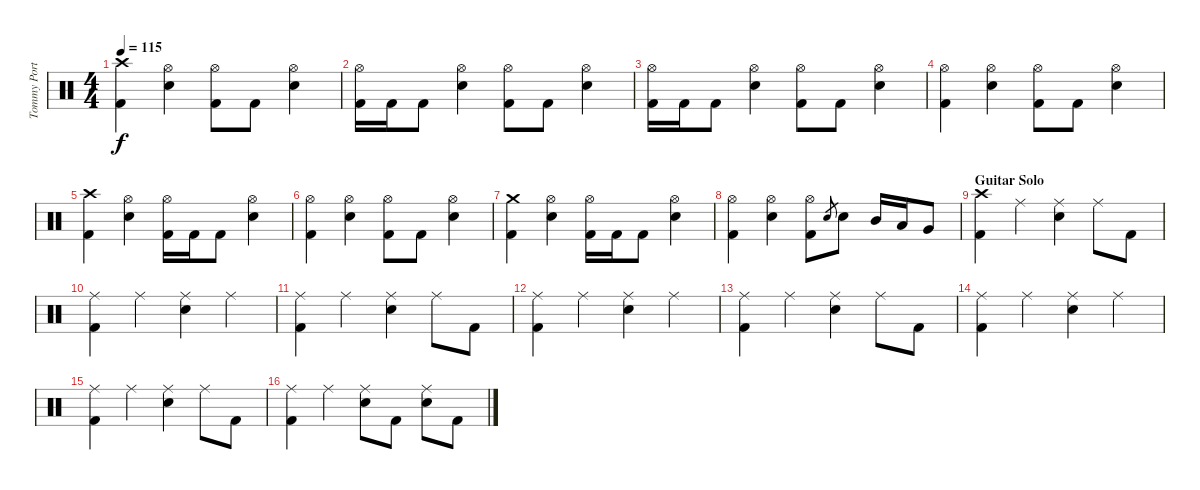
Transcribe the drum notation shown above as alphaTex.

\track ("Tommy Portino - Drums" "Tommy Port") {instrument percussion}
\staff {score}
\articulation defaults
\ts (4 4)
\tempo 115
\clef neutral
\ks c
("Crash high (hit)" "Kick (hit) 2").4{dy f} ("Hi-Hat (open)" "Electric Snare (hit)").4 ("Hi-Hat (open)" "Kick (hit) 2").8 "Kick (hit) 2".8 ("Hi-Hat (open)" "Electric Snare (hit)").4 |
("Hi-Hat (open)" "Kick (hit) 2").16 "Kick (hit) 2".16 "Kick (hit) 2".8 ("Hi-Hat (open)" "Electric Snare (hit)").4 ("Hi-Hat (open)" "Kick (hit) 2").8 "Kick (hit) 2".8 ("Hi-Hat (open)" "Electric Snare (hit)").4 |
("Hi-Hat (open)" "Kick (hit) 2").16 "Kick (hit) 2".16 "Kick (hit) 2".8 ("Hi-Hat (open)" "Electric Snare (hit)").4 ("Hi-Hat (open)" "Kick (hit) 2").8 "Kick (hit) 2".8 ("Hi-Hat (open)" "Electric Snare (hit)").4 |
("Hi-Hat (open)" "Kick (hit) 2").4 ("Hi-Hat (open)" "Electric Snare (hit)").4 ("Hi-Hat (open)" "Kick (hit) 2").8 "Kick (hit) 2".8 ("Hi-Hat (open)" "Electric Snare (hit)").4 |
("Crash high (hit)" "Kick (hit) 2").4 ("Hi-Hat (open)" "Electric Snare (hit)").4 ("Hi-Hat (open)" "Kick (hit) 2").16 "Kick (hit) 2".16 "Kick (hit) 2".8 ("Hi-Hat (open)" "Electric Snare (hit)").4 |
("Hi-Hat (open)" "Kick (hit) 2").4 ("Hi-Hat (open)" "Electric Snare (hit)").4 ("Hi-Hat (open)" "Kick (hit) 2").8 "Kick (hit) 2".8 ("Hi-Hat (open)" "Electric Snare (hit)").4 |
("Crash medium (hit)" "Kick (hit) 2").4 ("Hi-Hat (open)" "Electric Snare (hit)").4 ("Hi-Hat (open)" "Kick (hit) 2").16 "Kick (hit) 2".16 "Kick (hit) 2".8 ("Hi-Hat (open)" "Electric Snare (hit)").4 |
("Hi-Hat (open)" "Kick (hit) 2").4 ("Hi-Hat (open)" "Electric Snare (hit)").4 ("Hi-Hat (open)" "Kick (hit) 2").8 "Electric Snare (hit)".8{gr} "Electric Snare (hit)".8 "Mid Tom (hit)".16 "Low Tom (hit)".16 "Very Low Tom (hit)".8 |
\section ("" "Guitar Solo ")
("Crash high (hit)" "Kick (hit) 2").4 "Ride (middle)".4 ("Ride (middle)" "Electric Snare (hit)").4 "Ride (middle)".8 "Kick (hit) 2".8 |
("Ride (middle)" "Kick (hit) 2").4 "Ride (middle)".4 ("Ride (middle)" "Electric Snare (hit)").4 "Ride (middle)".4 |
("Ride (middle)" "Kick (hit) 2").4 "Ride (middle)".4 ("Ride (middle)" "Electric Snare (hit)").4 "Ride (middle)".8 "Kick (hit) 2".8 |
("Ride (middle)" "Kick (hit) 2").4 "Ride (middle)".4 ("Ride (middle)" "Electric Snare (hit)").4 "Ride (middle)".4 |
("Ride (middle)" "Kick (hit) 2").4 "Ride (middle)".4 ("Ride (middle)" "Electric Snare (hit)").4 "Ride (middle)".8 "Kick (hit) 2".8 |
("Ride (middle)" "Kick (hit) 2").4 "Ride (middle)".4 ("Ride (middle)" "Electric Snare (hit)").4 "Ride (middle)".4 |
("Ride (middle)" "Kick (hit) 2").4 "Ride (middle)".4 ("Ride (middle)" "Electric Snare (hit)").4 "Ride (middle)".8 "Kick (hit) 2".8 |
("Ride (middle)" "Kick (hit) 2").4 "Ride (middle)".4 ("Ride (middle)" "Electric Snare (hit)").8 "Kick (hit) 2".8 ("Ride (middle)" "Electric Snare (hit)").8 "Kick (hit) 2".8
